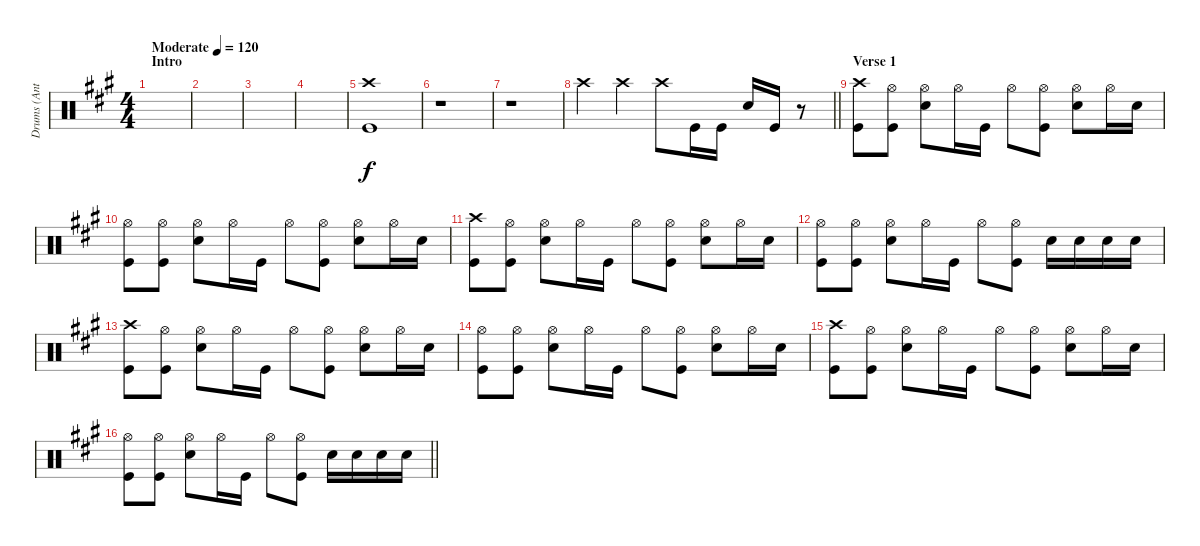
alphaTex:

\track ("Drums (Ant)" "Drums (Ant") {instrument percussion}
\staff {score}
\articulation defaults
\ts (4 4)
\section ("" "Intro")
\tempo (120 "Moderate")
\clef neutral
\ks a
|
|
|
|
("Crash high (hit)" "Kick (hit)").1 |
r.1 |
r.1 |
\barLineRight lightlight "Crash high (hit)".4 "Crash high (hit)".4 "Crash high (hit)".8 "Kick (hit)".16 "Kick (hit)".16 "Snare (hit) 2".16 "Kick (hit)".16
r.8 |
\section ("" "Verse 1")
("Crash high (hit)" "Kick (hit)").8 ("Hi-Hat (open)" "Kick (hit)").8 ("Hi-Hat (open)" "Snare (hit) 2").8 "Hi-Hat (open)".16 "Kick (hit)".16 "Hi-Hat (open)".8 ("Hi-Hat (open)" "Kick (hit)").8 ("Hi-Hat (open)" "Snare (hit) 2").8 "Hi-Hat (open)".16 "Snare (hit) 2".16 |
("Hi-Hat (open)" "Kick (hit)").8 ("Hi-Hat (open)" "Kick (hit)").8 ("Hi-Hat (open)" "Snare (hit) 2").8 "Hi-Hat (open)".16 "Kick (hit)".16 "Hi-Hat (open)".8 ("Hi-Hat (open)" "Kick (hit)").8 ("Hi-Hat (open)" "Snare (hit) 2").8 "Hi-Hat (open)".16 "Snare (hit) 2".16 |
("Crash high (hit)" "Kick (hit)").8 ("Hi-Hat (open)" "Kick (hit)").8 ("Hi-Hat (open)" "Snare (hit) 2").8 "Hi-Hat (open)".16 "Kick (hit)".16 "Hi-Hat (open)".8 ("Hi-Hat (open)" "Kick (hit)").8 ("Hi-Hat (open)" "Snare (hit) 2").8 "Hi-Hat (open)".16 "Snare (hit) 2".16 |
("Hi-Hat (open)" "Kick (hit)").8 ("Hi-Hat (open)" "Kick (hit)").8 ("Hi-Hat (open)" "Snare (hit) 2").8 "Hi-Hat (open)".16 "Kick (hit)".16 "Hi-Hat (open)".8 ("Hi-Hat (open)" "Kick (hit)").8 "Snare (hit) 2".16 "Snare (hit) 2".16 "Snare (hit) 2".16 "Snare (hit) 2".16 |
("Crash high (hit)" "Kick (hit)").8 ("Hi-Hat (open)" "Kick (hit)").8 ("Hi-Hat (open)" "Snare (hit) 2").8 "Hi-Hat (open)".16 "Kick (hit)".16 "Hi-Hat (open)".8 ("Hi-Hat (open)" "Kick (hit)").8 ("Hi-Hat (open)" "Snare (hit) 2").8 "Hi-Hat (open)".16 "Snare (hit) 2".16 |
("Hi-Hat (open)" "Kick (hit)").8 ("Hi-Hat (open)" "Kick (hit)").8 ("Hi-Hat (open)" "Snare (hit) 2").8 "Hi-Hat (open)".16 "Kick (hit)".16 "Hi-Hat (open)".8 ("Hi-Hat (open)" "Kick (hit)").8 ("Hi-Hat (open)" "Snare (hit) 2").8 "Hi-Hat (open)".16 "Snare (hit) 2".16 |
("Crash high (hit)" "Kick (hit)").8 ("Hi-Hat (open)" "Kick (hit)").8 ("Hi-Hat (open)" "Snare (hit) 2").8 "Hi-Hat (open)".16 "Kick (hit)".16 "Hi-Hat (open)".8 ("Hi-Hat (open)" "Kick (hit)").8 ("Hi-Hat (open)" "Snare (hit) 2").8 "Hi-Hat (open)".16 "Snare (hit) 2".16 |
\barLineRight lightlight
("Hi-Hat (open)" "Kick (hit)").8 ("Hi-Hat (open)" "Kick (hit)").8 ("Hi-Hat (open)" "Snare (hit) 2").8 "Hi-Hat (open)".16 "Kick (hit)".16 "Hi-Hat (open)".8 ("Hi-Hat (open)" "Kick (hit)").8 "Snare (hit) 2".16 "Snare (hit) 2".16 "Snare (hit) 2".16 "Snare (hit) 2".16
